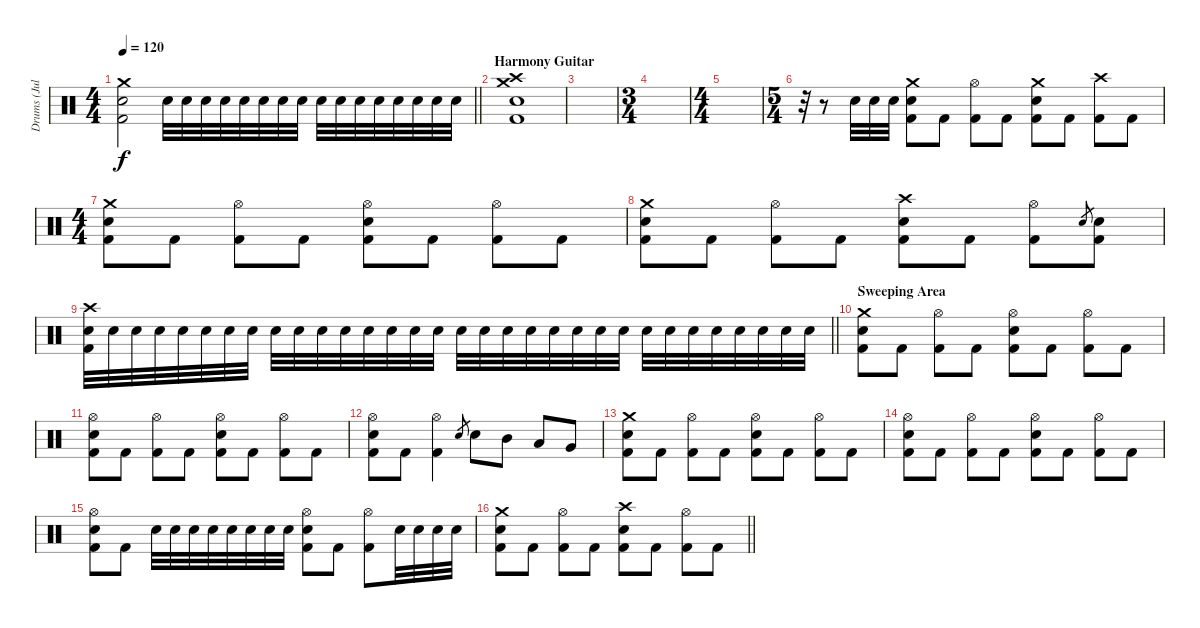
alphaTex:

\track ("Drums (Julian)" "Drums (Jul") {instrument percussion}
\staff {score}
\articulation defaults
\ts (4 4)
\tempo 120
\clef neutral
\barLineRight lightlight
\ks c
("Crash medium (hit)" "Snare (hit) 2" "Kick (hit) 2").2{dy f} "Snare (hit) 2".32 "Snare (hit) 2".32 "Snare (hit) 2".32 "Snare (hit) 2".32 "Snare (hit) 2".32 "Snare (hit) 2".32 "Snare (hit) 2".32 "Snare (hit) 2".32 "Snare (hit) 2".32 "Snare (hit) 2".32 "Snare (hit) 2".32 "Snare (hit) 2".32 "Snare (hit) 2".32 "Snare (hit) 2".32 "Snare (hit) 2".32 "Snare (hit) 2".32 |
\section ("" "Harmony Guitar")
("Crash medium (hit)" "Crash high (hit)" "Snare (hit) 2" "Kick (hit) 2").1 |
|
\ts (3 4)
|
\ts (4 4)
|
\ts (5 4)
r.32 r.8 "Snare (hit) 2".32 "Snare (hit) 2".32 "Snare (hit) 2".32 ("Crash medium (hit)" "Snare (hit) 2" "Kick (hit) 2").8 "Kick (hit) 2".8 ("Hi-Hat (open)" "Kick (hit) 2").8 "Kick (hit) 2".8 ("Crash medium (hit)" "Snare (hit) 2" "Kick (hit) 2").8 "Kick (hit) 2".8 ("Crash high (hit)" "Kick (hit) 2").8 "Kick (hit) 2".8 |
\ts (4 4)
("Crash medium (hit)" "Snare (hit) 2" "Kick (hit) 2").8 "Kick (hit) 2".8 ("Hi-Hat (open)" "Kick (hit) 2").8 "Kick (hit) 2".8 ("Hi-Hat (open)" "Snare (hit) 2" "Kick (hit) 2").8 "Kick (hit) 2".8 ("Hi-Hat (open)" "Kick (hit) 2").8 "Kick (hit) 2".8 |
("Crash medium (hit)" "Snare (hit) 2" "Kick (hit) 2").8 "Kick (hit) 2".8 ("Hi-Hat (open)" "Kick (hit) 2").8 "Kick (hit) 2".8 ("Crash high (hit)" "Snare (hit) 2" "Kick (hit) 2").8 "Kick (hit) 2".8 ("Hi-Hat (open)" "Kick (hit) 2").8 "Snare (hit) 2".8{gr} ("Snare (hit) 2" "Kick (hit) 2").8 |
\barLineRight lightlight
("Crash high (hit)" "Snare (hit) 2" "Kick (hit) 2").32 "Snare (hit) 2".32 "Snare (hit) 2".32 "Snare (hit) 2".32 "Snare (hit) 2".32 "Snare (hit) 2".32 "Snare (hit) 2".32 "Snare (hit) 2".32 "Snare (hit) 2".32 "Snare (hit) 2".32 "Snare (hit) 2".32 "Snare (hit) 2".32 "Snare (hit) 2".32 "Snare (hit) 2".32 "Snare (hit) 2".32 "Snare (hit) 2".32 "Snare (hit) 2".32 "Snare (hit) 2".32 "Snare (hit) 2".32 "Snare (hit) 2".32 "Snare (hit) 2".32 "Snare (hit) 2".32 "Snare (hit) 2".32 "Snare (hit) 2".32 "Snare (hit) 2".32 "Snare (hit) 2".32 "Snare (hit) 2".32 "Snare (hit) 2".32 "Snare (hit) 2".32 "Snare (hit) 2".32 "Snare (hit) 2".32 "Snare (hit) 2".32 |
\section ("" "Sweeping Area")
("Crash medium (hit)" "Snare (hit) 2" "Kick (hit) 2").8 "Kick (hit) 2".8 ("Hi-Hat (open)" "Kick (hit) 2").8 "Kick (hit) 2".8 ("Hi-Hat (open)" "Snare (hit) 2" "Kick (hit) 2").8 "Kick (hit) 2".8 ("Hi-Hat (open)" "Kick (hit) 2").8 "Kick (hit) 2".8 |
("Hi-Hat (open)" "Snare (hit) 2" "Kick (hit) 2").8 "Kick (hit) 2".8 ("Hi-Hat (open)" "Kick (hit) 2").8 "Kick (hit) 2".8 ("Hi-Hat (open)" "Snare (hit) 2" "Kick (hit) 2").8 "Kick (hit) 2".8 ("Hi-Hat (open)" "Kick (hit) 2").8 "Kick (hit) 2".8 |
("Hi-Hat (open)" "Snare (hit) 2" "Kick (hit) 2").8 "Kick (hit) 2".8 ("Hi-Hat (open)" "Kick (hit) 2").4 "Snare (hit) 2".8{gr} "Snare (hit) 2".8 "Mid Tom (hit)".8 "Low Tom (hit)".8 "Very Low Tom (hit)".8 |
("Crash medium (hit)" "Snare (hit) 2" "Kick (hit) 2").8 "Kick (hit) 2".8 ("Hi-Hat (open)" "Kick (hit) 2").8 "Kick (hit) 2".8 ("Hi-Hat (open)" "Snare (hit) 2" "Kick (hit) 2").8 "Kick (hit) 2".8 ("Hi-Hat (open)" "Kick (hit) 2").8 "Kick (hit) 2".8 |
("Hi-Hat (open)" "Snare (hit) 2" "Kick (hit) 2").8 "Kick (hit) 2".8 ("Hi-Hat (open)" "Kick (hit) 2").8 "Kick (hit) 2".8 ("Hi-Hat (open)" "Snare (hit) 2" "Kick (hit) 2").8 "Kick (hit) 2".8 ("Hi-Hat (open)" "Kick (hit) 2").8 "Kick (hit) 2".8 |
("Hi-Hat (open)" "Snare (hit) 2" "Kick (hit) 2").8 "Kick (hit) 2".8 "Snare (hit) 2".32 "Snare (hit) 2".32 "Snare (hit) 2".32 "Snare (hit) 2".32 "Snare (hit) 2".32 "Snare (hit) 2".32 "Snare (hit) 2".32 "Snare (hit) 2".32 ("Hi-Hat (open)" "Snare (hit) 2" "Kick (hit) 2").8 "Kick (hit) 2".8 ("Hi-Hat (open)" "Kick (hit) 2").8 "Snare (hit) 2".32 "Snare (hit) 2".32 "Snare (hit) 2".32 "Snare (hit) 2".32 |
\barLineRight lightlight
("Crash medium (hit)" "Snare (hit) 2" "Kick (hit) 2").8 "Kick (hit) 2".8 ("Hi-Hat (open)" "Kick (hit) 2").8 "Kick (hit) 2".8 ("Crash high (hit)" "Snare (hit) 2" "Kick (hit) 2").8 "Kick (hit) 2".8 ("Hi-Hat (open)" "Kick (hit) 2").8 "Kick (hit) 2".8
